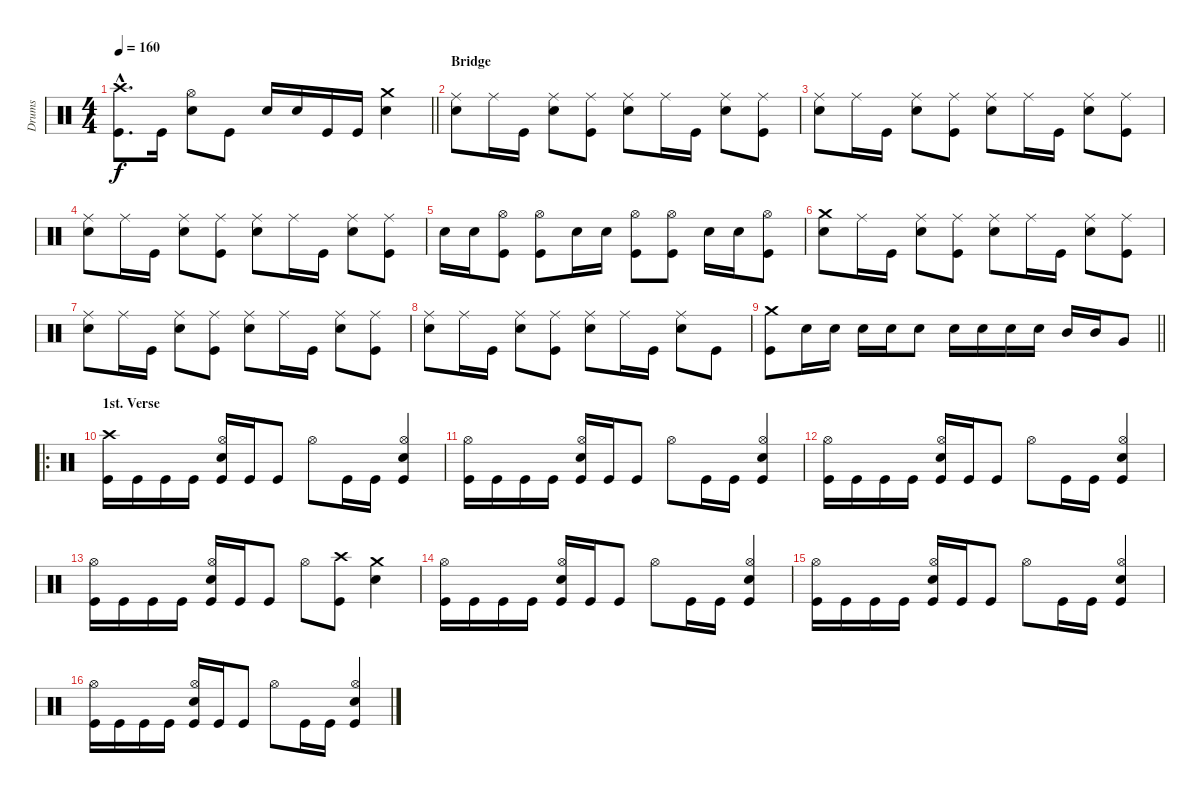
\track ("Drums" "Drums") {instrument percussion}
\staff {score}
\articulation defaults
\ts (4 4)
\tempo 160
\clef neutral
\barLineRight lightlight
\ks c
("Crash high (hit)"{hac} "Kick (hit)"{hac}).8{d dy f} "Kick (hit)".16 ("Hi-Hat (open)" "Electric Snare (hit)").8 "Kick (hit)".8 "Electric Snare (hit)".16 "Electric Snare (hit)".16 "Kick (hit)".16 "Kick (hit)".16 ("Crash medium (hit)" "Electric Snare (hit)").4 |
\section ("" "Bridge")
("Ride (middle)" "Electric Snare (hit)").8 "Ride (middle)".16 "Kick (hit)".16 ("Ride (middle)" "Electric Snare (hit)").8 ("Ride (middle)" "Kick (hit)").8 ("Ride (middle)" "Electric Snare (hit)").8 "Ride (middle)".16 "Kick (hit)".16 ("Ride (middle)" "Electric Snare (hit)").8 ("Ride (middle)" "Kick (hit)").8 |
("Ride (middle)" "Electric Snare (hit)").8 "Ride (middle)".16 "Kick (hit)".16 ("Ride (middle)" "Electric Snare (hit)").8 ("Ride (middle)" "Kick (hit)").8 ("Ride (middle)" "Electric Snare (hit)").8 "Ride (middle)".16 "Kick (hit)".16 ("Ride (middle)" "Electric Snare (hit)").8 ("Ride (middle)" "Kick (hit)").8 |
("Ride (middle)" "Electric Snare (hit)").8 "Ride (middle)".16 "Kick (hit)".16 ("Ride (middle)" "Electric Snare (hit)").8 ("Ride (middle)" "Kick (hit)").8 ("Ride (middle)" "Electric Snare (hit)").8 "Ride (middle)".16 "Kick (hit)".16 ("Ride (middle)" "Electric Snare (hit)").8 ("Ride (middle)" "Kick (hit)").8 |
"Electric Snare (hit)".16 "Electric Snare (hit)".16 ("Hi-Hat (open)" "Kick (hit)").8 ("Hi-Hat (open)" "Kick (hit)").8 "Electric Snare (hit)".16 "Electric Snare (hit)".16 ("Hi-Hat (open)" "Kick (hit)").8 ("Hi-Hat (open)" "Kick (hit)").8 "Electric Snare (hit)".16 "Electric Snare (hit)".16 ("Hi-Hat (open)" "Kick (hit)").8 |
("Crash medium (hit)" "Electric Snare (hit)").8 "Ride (middle)".16 "Kick (hit)".16 ("Ride (middle)" "Electric Snare (hit)").8 ("Ride (middle)" "Kick (hit)").8 ("Ride (middle)" "Electric Snare (hit)").8 "Ride (middle)".16 "Kick (hit)".16 ("Ride (middle)" "Electric Snare (hit)").8 ("Ride (middle)" "Kick (hit)").8 |
("Ride (middle)" "Electric Snare (hit)").8 "Ride (middle)".16 "Kick (hit)".16 ("Ride (middle)" "Electric Snare (hit)").8 ("Ride (middle)" "Kick (hit)").8 ("Ride (middle)" "Electric Snare (hit)").8 "Ride (middle)".16 "Kick (hit)".16 ("Ride (middle)" "Electric Snare (hit)").8 ("Ride (middle)" "Kick (hit)").8 |
("Ride (middle)" "Electric Snare (hit)").8 "Ride (middle)".16 "Kick (hit)".16 ("Ride (middle)" "Electric Snare (hit)").8 ("Ride (middle)" "Kick (hit)").8 ("Ride (middle)" "Electric Snare (hit)").8 "Ride (middle)".16 "Kick (hit)".16 ("Ride (middle)" "Electric Snare (hit)").8 "Kick (hit)".8 |
\barLineRight lightlight
("Crash medium (hit)" "Kick (hit)").8 "Electric Snare (hit)".16 "Electric Snare (hit)".16 "Electric Snare (hit)".16 "Electric Snare (hit)".16 "Electric Snare (hit)".8 "Electric Snare (hit)".16 "Electric Snare (hit)".16 "Electric Snare (hit)".16 "Electric Snare (hit)".16 "Mid Tom (hit)".16 "Mid Tom (hit)".16 "Very Low Tom (hit)".8 |
\ro
\section ("" "1st. Verse")
("Crash high (hit)" "Kick (hit)").16 "Kick (hit)".16 "Kick (hit)".16 "Kick (hit)".16 ("Hi-Hat (open)" "Electric Snare (hit)" "Kick (hit)").16 "Kick (hit)".16 "Kick (hit)".8 "Hi-Hat (open)".8 "Kick (hit)".16 "Kick (hit)".16 ("Hi-Hat (open)" "Electric Snare (hit)" "Kick (hit)").4 |
("Hi-Hat (open)" "Kick (hit)").16 "Kick (hit)".16 "Kick (hit)".16 "Kick (hit)".16 ("Hi-Hat (open)" "Electric Snare (hit)" "Kick (hit)").16 "Kick (hit)".16 "Kick (hit)".8 "Hi-Hat (open)".8 "Kick (hit)".16 "Kick (hit)".16 ("Hi-Hat (open)" "Electric Snare (hit)" "Kick (hit)").4 |
("Hi-Hat (open)" "Kick (hit)").16 "Kick (hit)".16 "Kick (hit)".16 "Kick (hit)".16 ("Hi-Hat (open)" "Electric Snare (hit)" "Kick (hit)").16 "Kick (hit)".16 "Kick (hit)".8 "Hi-Hat (open)".8 "Kick (hit)".16 "Kick (hit)".16 ("Hi-Hat (open)" "Electric Snare (hit)" "Kick (hit)").4 |
("Hi-Hat (open)" "Kick (hit)").16 "Kick (hit)".16 "Kick (hit)".16 "Kick (hit)".16 ("Hi-Hat (open)" "Electric Snare (hit)" "Kick (hit)").16 "Kick (hit)".16 "Kick (hit)".8 "Hi-Hat (open)".8 ("Crash high (hit)" "Kick (hit)").8 ("Crash medium (hit)" "Electric Snare (hit)").4 |
("Hi-Hat (open)" "Kick (hit)").16 "Kick (hit)".16 "Kick (hit)".16 "Kick (hit)".16 ("Hi-Hat (open)" "Electric Snare (hit)" "Kick (hit)").16 "Kick (hit)".16 "Kick (hit)".8 "Hi-Hat (open)".8 "Kick (hit)".16 "Kick (hit)".16 ("Hi-Hat (open)" "Electric Snare (hit)" "Kick (hit)").4 |
("Hi-Hat (open)" "Kick (hit)").16 "Kick (hit)".16 "Kick (hit)".16 "Kick (hit)".16 ("Hi-Hat (open)" "Electric Snare (hit)" "Kick (hit)").16 "Kick (hit)".16 "Kick (hit)".8 "Hi-Hat (open)".8 "Kick (hit)".16 "Kick (hit)".16 ("Hi-Hat (open)" "Electric Snare (hit)" "Kick (hit)").4 |
("Hi-Hat (open)" "Kick (hit)").16 "Kick (hit)".16 "Kick (hit)".16 "Kick (hit)".16 ("Hi-Hat (open)" "Electric Snare (hit)" "Kick (hit)").16 "Kick (hit)".16 "Kick (hit)".8 "Hi-Hat (open)".8 "Kick (hit)".16 "Kick (hit)".16 ("Hi-Hat (open)" "Electric Snare (hit)" "Kick (hit)").4
